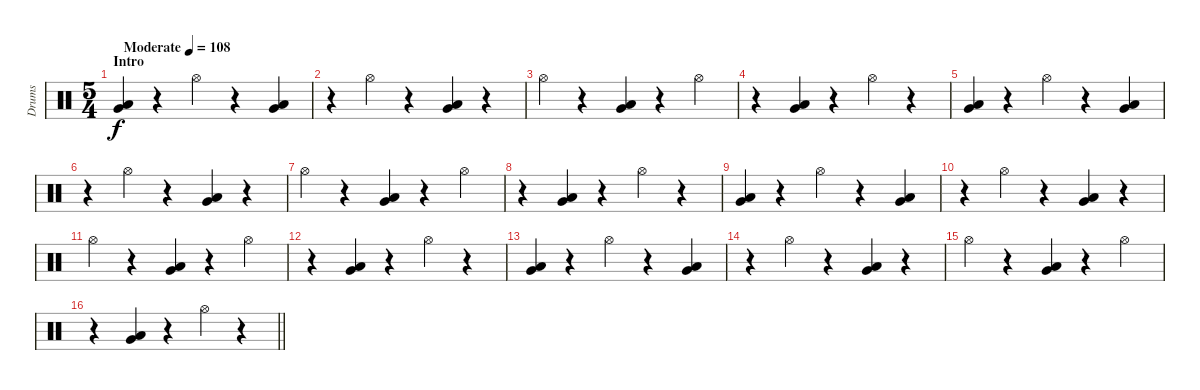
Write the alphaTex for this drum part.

\track ("Drums" "Drums") {instrument percussion}
\staff {score}
\articulation defaults
\ts (5 4)
\section ("" "Intro")
\tempo (108 "Moderate")
\clef neutral
\ks c
("Very Low Tom (hit)" "Low Tom (hit)").4{dy f} r.4 "Hi-Hat (open)".4 r.4 ("Very Low Tom (hit)" "Low Tom (hit)").4 |
r.4 "Hi-Hat (open)".4 r.4 ("Very Low Tom (hit)" "Low Tom (hit)").4 r.4 |
"Hi-Hat (open)".4 r.4 ("Very Low Tom (hit)" "Low Tom (hit)").4 r.4 "Hi-Hat (open)".4 |
r.4 ("Very Low Tom (hit)" "Low Tom (hit)").4 r.4 "Hi-Hat (open)".4 r.4 |
("Very Low Tom (hit)" "Low Tom (hit)").4 r.4 "Hi-Hat (open)".4 r.4 ("Very Low Tom (hit)" "Low Tom (hit)").4 |
r.4 "Hi-Hat (open)".4 r.4 ("Very Low Tom (hit)" "Low Tom (hit)").4 r.4 |
"Hi-Hat (open)".4 r.4 ("Very Low Tom (hit)" "Low Tom (hit)").4 r.4 "Hi-Hat (open)".4 |
r.4 ("Very Low Tom (hit)" "Low Tom (hit)").4 r.4 "Hi-Hat (open)".4 r.4 |
("Very Low Tom (hit)" "Low Tom (hit)").4 r.4 "Hi-Hat (open)".4 r.4 ("Very Low Tom (hit)" "Low Tom (hit)").4 |
r.4 "Hi-Hat (open)".4 r.4 ("Very Low Tom (hit)" "Low Tom (hit)").4 r.4 |
"Hi-Hat (open)".4 r.4 ("Very Low Tom (hit)" "Low Tom (hit)").4 r.4 "Hi-Hat (open)".4 |
r.4 ("Very Low Tom (hit)" "Low Tom (hit)").4 r.4 "Hi-Hat (open)".4 r.4 |
("Very Low Tom (hit)" "Low Tom (hit)").4 r.4 "Hi-Hat (open)".4 r.4 ("Very Low Tom (hit)" "Low Tom (hit)").4 |
r.4 "Hi-Hat (open)".4 r.4 ("Very Low Tom (hit)" "Low Tom (hit)").4 r.4 |
"Hi-Hat (open)".4 r.4 ("Very Low Tom (hit)" "Low Tom (hit)").4 r.4 "Hi-Hat (open)".4 |
\barLineRight lightlight
r.4 ("Very Low Tom (hit)" "Low Tom (hit)").4 r.4 "Hi-Hat (open)".4 r.4
